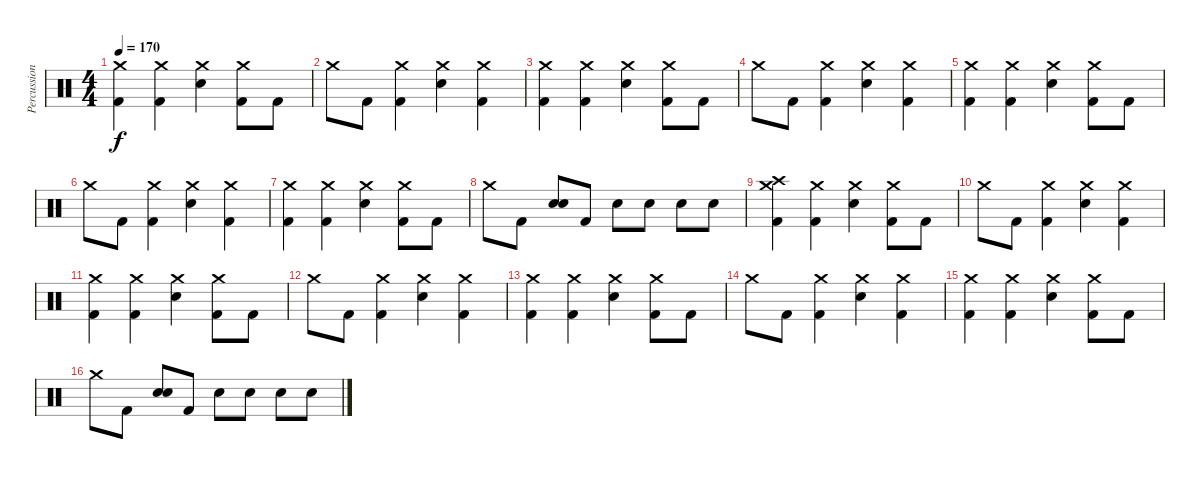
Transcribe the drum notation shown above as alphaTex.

\track ("Percussions" "Percussion") {instrument percussion}
\staff {score}
\articulation defaults
\ts (4 4)
\tempo 170
\clef neutral
\ks c
("Crash medium (hit)" "Kick (hit) 2").4{dy f} ("Crash medium (hit)" "Kick (hit) 2").4 ("Crash medium (hit)" "Electric Snare (hit)").4 ("Crash medium (hit)" "Kick (hit) 2").8 "Kick (hit) 2".8 |
"Crash medium (hit)".8 "Kick (hit) 2".8 ("Crash medium (hit)" "Kick (hit) 2").4 ("Crash medium (hit)" "Electric Snare (hit)").4 ("Crash medium (hit)" "Kick (hit) 2").4 |
("Crash medium (hit)" "Kick (hit) 2").4 ("Crash medium (hit)" "Kick (hit) 2").4 ("Crash medium (hit)" "Electric Snare (hit)").4 ("Crash medium (hit)" "Kick (hit) 2").8 "Kick (hit) 2".8 |
"Crash medium (hit)".8 "Kick (hit) 2".8 ("Crash medium (hit)" "Kick (hit) 2").4 ("Crash medium (hit)" "Electric Snare (hit)").4 ("Crash medium (hit)" "Kick (hit) 2").4 |
("Crash medium (hit)" "Kick (hit) 2").4 ("Crash medium (hit)" "Kick (hit) 2").4 ("Crash medium (hit)" "Electric Snare (hit)").4 ("Crash medium (hit)" "Kick (hit) 2").8 "Kick (hit) 2".8 |
"Crash medium (hit)".8 "Kick (hit) 2".8 ("Crash medium (hit)" "Kick (hit) 2").4 ("Crash medium (hit)" "Electric Snare (hit)").4 ("Crash medium (hit)" "Kick (hit) 2").4 |
("Crash medium (hit)" "Kick (hit) 2").4 ("Crash medium (hit)" "Kick (hit) 2").4 ("Crash medium (hit)" "Electric Snare (hit)").4 ("Crash medium (hit)" "Kick (hit) 2").8 "Kick (hit) 2".8 |
"Crash medium (hit)".8 "Kick (hit) 2".8 ("Electric Snare (hit)" "Electric Snare (hit)").8{bd 480} "Kick (hit) 2".8 "Electric Snare (hit)".8 "Electric Snare (hit)".8 "Electric Snare (hit)".8 "Electric Snare (hit)".8 |
("Crash high (hit)" "Crash medium (hit)" "Kick (hit) 2").4 ("Crash medium (hit)" "Kick (hit) 2").4 ("Crash medium (hit)" "Electric Snare (hit)").4 ("Crash medium (hit)" "Kick (hit) 2").8 "Kick (hit) 2".8 |
"Crash medium (hit)".8 "Kick (hit) 2".8 ("Crash medium (hit)" "Kick (hit) 2").4 ("Crash medium (hit)" "Electric Snare (hit)").4 ("Crash medium (hit)" "Kick (hit) 2").4 |
("Crash medium (hit)" "Kick (hit) 2").4 ("Crash medium (hit)" "Kick (hit) 2").4 ("Crash medium (hit)" "Electric Snare (hit)").4 ("Crash medium (hit)" "Kick (hit) 2").8 "Kick (hit) 2".8 |
"Crash medium (hit)".8 "Kick (hit) 2".8 ("Crash medium (hit)" "Kick (hit) 2").4 ("Crash medium (hit)" "Electric Snare (hit)").4 ("Crash medium (hit)" "Kick (hit) 2").4 |
("Crash medium (hit)" "Kick (hit) 2").4 ("Crash medium (hit)" "Kick (hit) 2").4 ("Crash medium (hit)" "Electric Snare (hit)").4 ("Crash medium (hit)" "Kick (hit) 2").8 "Kick (hit) 2".8 |
"Crash medium (hit)".8 "Kick (hit) 2".8 ("Crash medium (hit)" "Kick (hit) 2").4 ("Crash medium (hit)" "Electric Snare (hit)").4 ("Crash medium (hit)" "Kick (hit) 2").4 |
("Crash medium (hit)" "Kick (hit) 2").4 ("Crash medium (hit)" "Kick (hit) 2").4 ("Crash medium (hit)" "Electric Snare (hit)").4 ("Crash medium (hit)" "Kick (hit) 2").8 "Kick (hit) 2".8 |
"Crash medium (hit)".8 "Kick (hit) 2".8 ("Electric Snare (hit)" "Electric Snare (hit)").8{bd 480} "Kick (hit) 2".8 "Electric Snare (hit)".8 "Electric Snare (hit)".8 "Electric Snare (hit)".8 "Electric Snare (hit)".8
